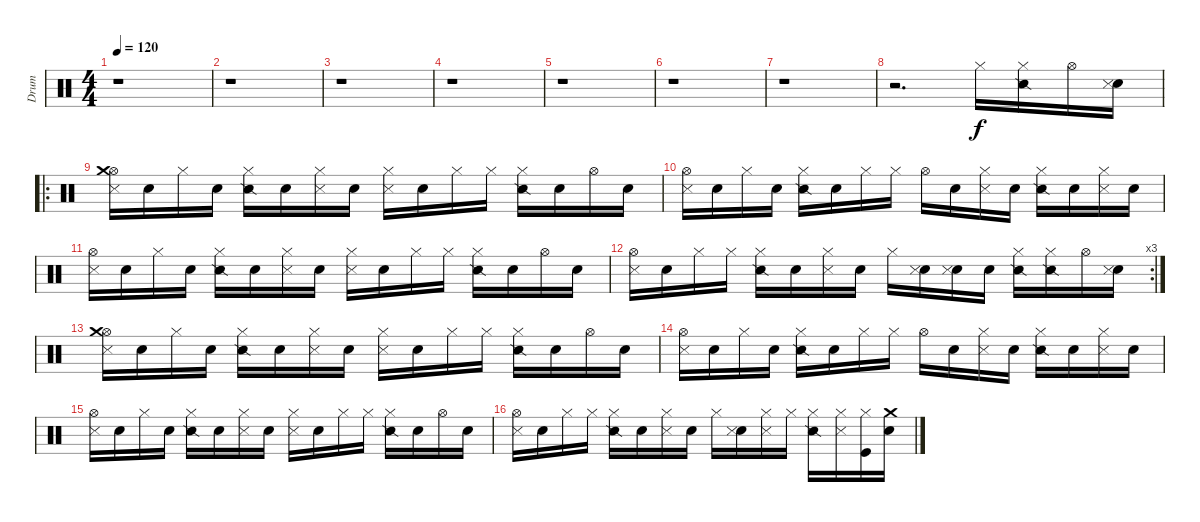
\track ("Drum" "Drum") {instrument percussion}
\staff {score}
\articulation defaults
\ts (4 4)
\tempo 120
\clef neutral
\ks c
r.1{dy f} |
r.1 |
r.1 |
r.1 |
r.1 |
r.1 |
r.1 |
r.2{d} "Hi-Hat (closed)".16 ("Hi-Hat (closed)" "Snare (side stick) 2").16 "Hi-Hat (open)".16 ("Snare (hit)" "Metronome (hit)").16 |
\ro
("Hi-Hat (open)" "Crash medium (hit)" "Metronome (hit)").16 "Snare (hit)".16 "Hi-Hat (closed)".16 "Snare (hit)".16 ("Hi-Hat (closed)" "Snare (side stick) 2").16 "Snare (hit)".16 ("Hi-Hat (closed)" "Metronome (hit)").16 "Snare (hit)".16 ("Hi-Hat (closed)" "Metronome (hit)").16 "Snare (hit)".16 "Hi-Hat (closed)".16 "Hi-Hat (closed)".16 ("Hi-Hat (closed)" "Snare (side stick) 2").16 "Snare (hit)".16 "Hi-Hat (open)".16 "Snare (hit)".16 |
("Hi-Hat (open)" "Metronome (hit)").16 "Snare (hit)".16 "Hi-Hat (closed)".16 "Snare (hit)".16 ("Hi-Hat (closed)" "Snare (side stick) 2").16 "Snare (hit)".16 "Hi-Hat (closed)".16 "Hi-Hat (closed)".16 "Hi-Hat (open)".16 "Snare (hit)".16 ("Hi-Hat (closed)" "Metronome (hit)").16 "Snare (hit)".16 ("Hi-Hat (closed)" "Snare (side stick) 2").16 "Snare (hit)".16 ("Hi-Hat (closed)" "Metronome (hit)").16 "Snare (hit)".16 |
("Hi-Hat (open)" "Metronome (hit)").16 "Snare (hit)".16 "Hi-Hat (closed)".16 "Snare (hit)".16 ("Hi-Hat (closed)" "Snare (side stick) 2").16 "Snare (hit)".16 ("Hi-Hat (closed)" "Metronome (hit)").16 "Snare (hit)".16 ("Hi-Hat (closed)" "Metronome (hit)").16 "Snare (hit)".16 "Hi-Hat (closed)".16 "Hi-Hat (closed)".16 ("Hi-Hat (closed)" "Snare (side stick) 2").16 "Snare (hit)".16 "Hi-Hat (open)".16 "Snare (hit)".16 |
\rc 3
("Hi-Hat (open)" "Metronome (hit)").16 "Snare (hit)".16 "Hi-Hat (closed)".16 "Hi-Hat (closed)".16 ("Hi-Hat (closed)" "Snare (side stick) 2").16 "Snare (hit)".16 ("Hi-Hat (closed)" "Metronome (hit)").16 "Snare (hit)".16 "Hi-Hat (closed)".16 ("Snare (hit)" "Metronome (hit)").16 ("Snare (hit)" "Metronome (hit)").16 "Snare (hit)".16 ("Hi-Hat (closed)" "Snare (side stick) 2").16 ("Hi-Hat (closed)" "Snare (side stick) 2").16 "Hi-Hat (open)".16 ("Snare (hit)" "Metronome (hit)").16 |
("Hi-Hat (open)" "Crash medium (hit)" "Metronome (hit)").16 "Snare (hit)".16 "Hi-Hat (closed)".16 "Snare (hit)".16 ("Hi-Hat (closed)" "Snare (side stick) 2").16 "Snare (hit)".16 ("Hi-Hat (closed)" "Metronome (hit)").16 "Snare (hit)".16 ("Hi-Hat (closed)" "Metronome (hit)").16 "Snare (hit)".16 "Hi-Hat (closed)".16 "Hi-Hat (closed)".16 ("Hi-Hat (closed)" "Snare (side stick) 2").16 "Snare (hit)".16 "Hi-Hat (open)".16 "Snare (hit)".16 |
("Hi-Hat (open)" "Metronome (hit)").16 "Snare (hit)".16 "Hi-Hat (closed)".16 "Snare (hit)".16 ("Hi-Hat (closed)" "Snare (side stick) 2").16 "Snare (hit)".16 "Hi-Hat (closed)".16 "Hi-Hat (closed)".16 "Hi-Hat (open)".16 "Snare (hit)".16 ("Hi-Hat (closed)" "Metronome (hit)").16 "Snare (hit)".16 ("Hi-Hat (closed)" "Snare (side stick) 2").16 "Snare (hit)".16 ("Hi-Hat (closed)" "Metronome (hit)").16 "Snare (hit)".16 |
("Hi-Hat (open)" "Metronome (hit)").16 "Snare (hit)".16 "Hi-Hat (closed)".16 "Snare (hit)".16 ("Hi-Hat (closed)" "Snare (side stick) 2").16 "Snare (hit)".16 ("Hi-Hat (closed)" "Metronome (hit)").16 "Snare (hit)".16 ("Hi-Hat (closed)" "Metronome (hit)").16 "Snare (hit)".16 "Hi-Hat (closed)".16 "Hi-Hat (closed)".16 ("Hi-Hat (closed)" "Snare (side stick) 2").16 "Snare (hit)".16 "Hi-Hat (open)".16 "Snare (hit)".16 |
("Hi-Hat (open)" "Metronome (hit)").16 "Snare (hit)".16 "Hi-Hat (closed)".16 "Hi-Hat (closed)".16 ("Hi-Hat (closed)" "Snare (side stick) 2").16 "Snare (hit)".16 ("Hi-Hat (closed)" "Metronome (hit)").16 "Snare (hit)".16 "Hi-Hat (closed)".16 ("Snare (hit)" "Metronome (hit)").16 ("Hi-Hat (closed)" "Metronome (hit)").16 "Hi-Hat (closed)".16 ("Hi-Hat (closed)" "Snare (side stick) 2").16 ("Hi-Hat (closed)" "Metronome (hit)").16 ("Hi-Hat (closed)" "Kick (hit)").16 ("Crash medium (hit)" "Electric Snare (hit)").16
